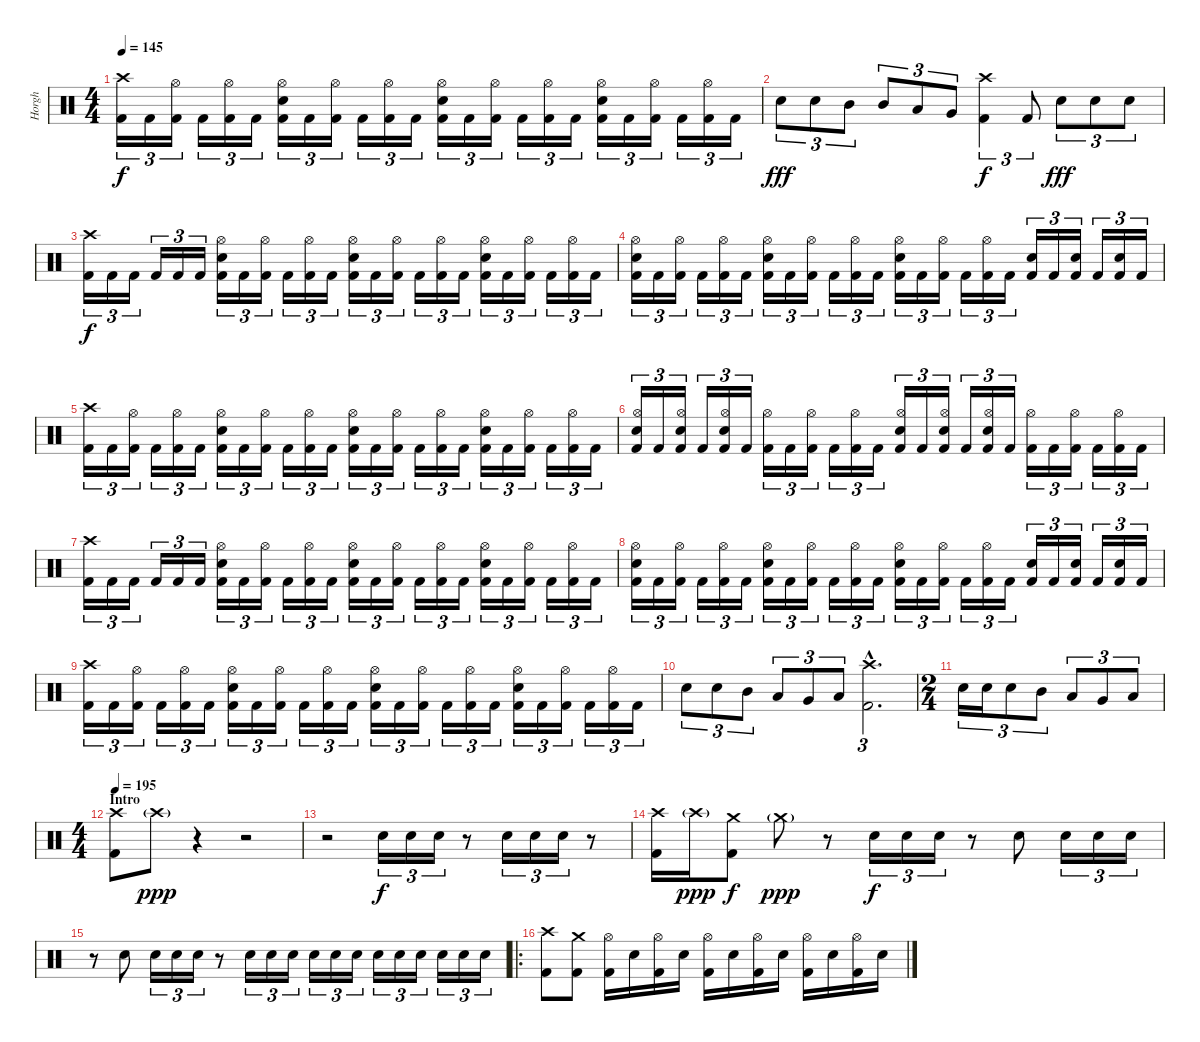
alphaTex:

\track ("Horgh" "Horgh") {instrument percussion}
\staff {score}
\articulation defaults
\ts (4 4)
\tempo 145
\clef neutral
\ks c
("Crash high (hit)" "Kick (hit) 2").16{tu (3 2) dy f} "Kick (hit) 2".16{tu (3 2)} ("Hi-Hat (open)" "Kick (hit) 2").16{tu (3 2)} "Kick (hit) 2".16{tu (3 2)} ("Hi-Hat (open)" "Kick (hit) 2").16{tu (3 2)} "Kick (hit) 2".16{tu (3 2)} ("Hi-Hat (open)" "Electric Snare (hit)" "Kick (hit) 2").16{tu (3 2)} "Kick (hit) 2".16{tu (3 2)} ("Hi-Hat (open)" "Kick (hit) 2").16{tu (3 2)} "Kick (hit) 2".16{tu (3 2)} ("Hi-Hat (open)" "Kick (hit) 2").16{tu (3 2)} "Kick (hit) 2".16{tu (3 2)} ("Hi-Hat (open)" "Electric Snare (hit)" "Kick (hit) 2").16{tu (3 2)} "Kick (hit) 2".16{tu (3 2)} ("Hi-Hat (open)" "Kick (hit) 2").16{tu (3 2)} "Kick (hit) 2".16{tu (3 2)} ("Hi-Hat (open)" "Kick (hit) 2").16{tu (3 2)} "Kick (hit) 2".16{tu (3 2)} ("Hi-Hat (open)" "Electric Snare (hit)" "Kick (hit) 2").16{tu (3 2)} "Kick (hit) 2".16{tu (3 2)} ("Hi-Hat (open)" "Kick (hit) 2").16{tu (3 2)} "Kick (hit) 2".16{tu (3 2)} ("Hi-Hat (open)" "Kick (hit) 2").16{tu (3 2)} "Kick (hit) 2".16{tu (3 2)} |
"Electric Snare (hit)".8{tu (3 2) dy fff} "Electric Snare (hit)".8{tu (3 2)} "Mid Tom (hit)".8{tu (3 2)} "Mid Tom (hit)".8{tu (3 2)} "Low Tom (hit)".8{tu (3 2)} "Very Low Tom (hit)".8{tu (3 2)} ("Crash high (hit)" "Kick (hit) 2").4{tu (3 2) dy f} "Kick (hit) 2".8{tu (3 2)} "Electric Snare (hit)".8{tu (3 2) dy fff} "Electric Snare (hit)".8{tu (3 2)} "Electric Snare (hit)".8{tu (3 2)} |
("Crash high (hit)" "Kick (hit) 2").16{tu (3 2) dy f} "Kick (hit) 2".16{tu (3 2)} "Kick (hit) 2".16{tu (3 2)} "Kick (hit) 2".16{tu (3 2)} "Kick (hit) 2".16{tu (3 2)} "Kick (hit) 2".16{tu (3 2)} ("Hi-Hat (open)" "Electric Snare (hit)" "Kick (hit) 2").16{tu (3 2)} "Kick (hit) 2".16{tu (3 2)} ("Hi-Hat (open)" "Kick (hit) 2").16{tu (3 2)} "Kick (hit) 2".16{tu (3 2)} ("Hi-Hat (open)" "Kick (hit) 2").16{tu (3 2)} "Kick (hit) 2".16{tu (3 2)} ("Hi-Hat (open)" "Electric Snare (hit)" "Kick (hit) 2").16{tu (3 2)} "Kick (hit) 2".16{tu (3 2)} ("Hi-Hat (open)" "Kick (hit) 2").16{tu (3 2)} "Kick (hit) 2".16{tu (3 2)} ("Hi-Hat (open)" "Kick (hit) 2").16{tu (3 2)} "Kick (hit) 2".16{tu (3 2)} ("Hi-Hat (open)" "Electric Snare (hit)" "Kick (hit) 2").16{tu (3 2)} "Kick (hit) 2".16{tu (3 2)} ("Hi-Hat (open)" "Kick (hit) 2").16{tu (3 2)} "Kick (hit) 2".16{tu (3 2)} ("Hi-Hat (open)" "Kick (hit) 2").16{tu (3 2)} "Kick (hit) 2".16{tu (3 2)} |
("Hi-Hat (open)" "Electric Snare (hit)" "Kick (hit) 2").16{tu (3 2)} "Kick (hit) 2".16{tu (3 2)} ("Hi-Hat (open)" "Kick (hit) 2").16{tu (3 2)} "Kick (hit) 2".16{tu (3 2)} ("Hi-Hat (open)" "Kick (hit) 2").16{tu (3 2)} "Kick (hit) 2".16{tu (3 2)} ("Hi-Hat (open)" "Electric Snare (hit)" "Kick (hit) 2").16{tu (3 2)} "Kick (hit) 2".16{tu (3 2)} ("Hi-Hat (open)" "Kick (hit) 2").16{tu (3 2)} "Kick (hit) 2".16{tu (3 2)} ("Hi-Hat (open)" "Kick (hit) 2").16{tu (3 2)} "Kick (hit) 2".16{tu (3 2)} ("Hi-Hat (open)" "Electric Snare (hit)" "Kick (hit) 2").16{tu (3 2)} "Kick (hit) 2".16{tu (3 2)} ("Hi-Hat (open)" "Kick (hit) 2").16{tu (3 2)} "Kick (hit) 2".16{tu (3 2)} ("Hi-Hat (open)" "Kick (hit) 2").16{tu (3 2)} "Kick (hit) 2".16{tu (3 2)} ("Electric Snare (hit)" "Kick (hit) 2").16{tu (3 2)} "Kick (hit) 2".16{tu (3 2)} ("Electric Snare (hit)" "Kick (hit) 2").16{tu (3 2)} "Kick (hit) 2".16{tu (3 2)} ("Electric Snare (hit)" "Kick (hit) 2").16{tu (3 2)} "Kick (hit) 2".16{tu (3 2)} |
("Crash high (hit)" "Kick (hit) 2").16{tu (3 2)} "Kick (hit) 2".16{tu (3 2)} ("Hi-Hat (open)" "Kick (hit) 2").16{tu (3 2)} "Kick (hit) 2".16{tu (3 2)} ("Hi-Hat (open)" "Kick (hit) 2").16{tu (3 2)} "Kick (hit) 2".16{tu (3 2)} ("Hi-Hat (open)" "Electric Snare (hit)" "Kick (hit) 2").16{tu (3 2)} "Kick (hit) 2".16{tu (3 2)} ("Hi-Hat (open)" "Kick (hit) 2").16{tu (3 2)} "Kick (hit) 2".16{tu (3 2)} ("Hi-Hat (open)" "Kick (hit) 2").16{tu (3 2)} "Kick (hit) 2".16{tu (3 2)} ("Hi-Hat (open)" "Electric Snare (hit)" "Kick (hit) 2").16{tu (3 2)} "Kick (hit) 2".16{tu (3 2)} ("Hi-Hat (open)" "Kick (hit) 2").16{tu (3 2)} "Kick (hit) 2".16{tu (3 2)} ("Hi-Hat (open)" "Kick (hit) 2").16{tu (3 2)} "Kick (hit) 2".16{tu (3 2)} ("Hi-Hat (open)" "Electric Snare (hit)" "Kick (hit) 2").16{tu (3 2)} "Kick (hit) 2".16{tu (3 2)} ("Hi-Hat (open)" "Kick (hit) 2").16{tu (3 2)} "Kick (hit) 2".16{tu (3 2)} ("Hi-Hat (open)" "Kick (hit) 2").16{tu (3 2)} "Kick (hit) 2".16{tu (3 2)} |
("Hi-Hat (open)" "Electric Snare (hit)" "Kick (hit) 2").16{tu (3 2)} "Kick (hit) 2".16{tu (3 2)} ("Hi-Hat (open)" "Electric Snare (hit)" "Kick (hit) 2").16{tu (3 2)} "Kick (hit) 2".16{tu (3 2)} ("Hi-Hat (open)" "Electric Snare (hit)" "Kick (hit) 2").16{tu (3 2)} "Kick (hit) 2".16{tu (3 2)} ("Hi-Hat (open)" "Kick (hit) 2").16{tu (3 2)} "Kick (hit) 2".16{tu (3 2)} ("Hi-Hat (open)" "Kick (hit) 2").16{tu (3 2)} "Kick (hit) 2".16{tu (3 2)} ("Hi-Hat (open)" "Kick (hit) 2").16{tu (3 2)} "Kick (hit) 2".16{tu (3 2)} ("Hi-Hat (open)" "Electric Snare (hit)" "Kick (hit) 2").16{tu (3 2)} "Kick (hit) 2".16{tu (3 2)} ("Hi-Hat (open)" "Electric Snare (hit)" "Kick (hit) 2").16{tu (3 2)} "Kick (hit) 2".16{tu (3 2)} ("Hi-Hat (open)" "Electric Snare (hit)" "Kick (hit) 2").16{tu (3 2)} "Kick (hit) 2".16{tu (3 2)} ("Hi-Hat (open)" "Kick (hit) 2").16{tu (3 2)} "Kick (hit) 2".16{tu (3 2)} ("Hi-Hat (open)" "Kick (hit) 2").16{tu (3 2)} "Kick (hit) 2".16{tu (3 2)} ("Hi-Hat (open)" "Kick (hit) 2").16{tu (3 2)} "Kick (hit) 2".16{tu (3 2)} |
("Crash high (hit)" "Kick (hit) 2").16{tu (3 2)} "Kick (hit) 2".16{tu (3 2)} "Kick (hit) 2".16{tu (3 2)} "Kick (hit) 2".16{tu (3 2)} "Kick (hit) 2".16{tu (3 2)} "Kick (hit) 2".16{tu (3 2)} ("Hi-Hat (open)" "Electric Snare (hit)" "Kick (hit) 2").16{tu (3 2)} "Kick (hit) 2".16{tu (3 2)} ("Hi-Hat (open)" "Kick (hit) 2").16{tu (3 2)} "Kick (hit) 2".16{tu (3 2)} ("Hi-Hat (open)" "Kick (hit) 2").16{tu (3 2)} "Kick (hit) 2".16{tu (3 2)} ("Hi-Hat (open)" "Electric Snare (hit)" "Kick (hit) 2").16{tu (3 2)} "Kick (hit) 2".16{tu (3 2)} ("Hi-Hat (open)" "Kick (hit) 2").16{tu (3 2)} "Kick (hit) 2".16{tu (3 2)} ("Hi-Hat (open)" "Kick (hit) 2").16{tu (3 2)} "Kick (hit) 2".16{tu (3 2)} ("Hi-Hat (open)" "Electric Snare (hit)" "Kick (hit) 2").16{tu (3 2)} "Kick (hit) 2".16{tu (3 2)} ("Hi-Hat (open)" "Kick (hit) 2").16{tu (3 2)} "Kick (hit) 2".16{tu (3 2)} ("Hi-Hat (open)" "Kick (hit) 2").16{tu (3 2)} "Kick (hit) 2".16{tu (3 2)} |
("Hi-Hat (open)" "Electric Snare (hit)" "Kick (hit) 2").16{tu (3 2)} "Kick (hit) 2".16{tu (3 2)} ("Hi-Hat (open)" "Kick (hit) 2").16{tu (3 2)} "Kick (hit) 2".16{tu (3 2)} ("Hi-Hat (open)" "Kick (hit) 2").16{tu (3 2)} "Kick (hit) 2".16{tu (3 2)} ("Hi-Hat (open)" "Electric Snare (hit)" "Kick (hit) 2").16{tu (3 2)} "Kick (hit) 2".16{tu (3 2)} ("Hi-Hat (open)" "Kick (hit) 2").16{tu (3 2)} "Kick (hit) 2".16{tu (3 2)} ("Hi-Hat (open)" "Kick (hit) 2").16{tu (3 2)} "Kick (hit) 2".16{tu (3 2)} ("Hi-Hat (open)" "Electric Snare (hit)" "Kick (hit) 2").16{tu (3 2)} "Kick (hit) 2".16{tu (3 2)} ("Hi-Hat (open)" "Kick (hit) 2").16{tu (3 2)} "Kick (hit) 2".16{tu (3 2)} ("Hi-Hat (open)" "Kick (hit) 2").16{tu (3 2)} "Kick (hit) 2".16{tu (3 2)} ("Electric Snare (hit)" "Kick (hit) 2").16{tu (3 2)} "Kick (hit) 2".16{tu (3 2)} ("Electric Snare (hit)" "Kick (hit) 2").16{tu (3 2)} "Kick (hit) 2".16{tu (3 2)} ("Electric Snare (hit)" "Kick (hit) 2").16{tu (3 2)} "Kick (hit) 2".16{tu (3 2)} |
("Crash high (hit)" "Kick (hit) 2").16{tu (3 2)} "Kick (hit) 2".16{tu (3 2)} ("Hi-Hat (open)" "Kick (hit) 2").16{tu (3 2)} "Kick (hit) 2".16{tu (3 2)} ("Hi-Hat (open)" "Kick (hit) 2").16{tu (3 2)} "Kick (hit) 2".16{tu (3 2)} ("Hi-Hat (open)" "Electric Snare (hit)" "Kick (hit) 2").16{tu (3 2)} "Kick (hit) 2".16{tu (3 2)} ("Hi-Hat (open)" "Kick (hit) 2").16{tu (3 2)} "Kick (hit) 2".16{tu (3 2)} ("Hi-Hat (open)" "Kick (hit) 2").16{tu (3 2)} "Kick (hit) 2".16{tu (3 2)} ("Hi-Hat (open)" "Electric Snare (hit)" "Kick (hit) 2").16{tu (3 2)} "Kick (hit) 2".16{tu (3 2)} ("Hi-Hat (open)" "Kick (hit) 2").16{tu (3 2)} "Kick (hit) 2".16{tu (3 2)} ("Hi-Hat (open)" "Kick (hit) 2").16{tu (3 2)} "Kick (hit) 2".16{tu (3 2)} ("Hi-Hat (open)" "Electric Snare (hit)" "Kick (hit) 2").16{tu (3 2)} "Kick (hit) 2".16{tu (3 2)} ("Hi-Hat (open)" "Kick (hit) 2").16{tu (3 2)} "Kick (hit) 2".16{tu (3 2)} ("Hi-Hat (open)" "Kick (hit) 2").16{tu (3 2)} "Kick (hit) 2".16{tu (3 2)} |
"Electric Snare (hit)".8{tu (3 2)} "Electric Snare (hit)".8{tu (3 2)} "Mid Tom (hit)".8{tu (3 2)} "Low Tom (hit)".8{tu (3 2)} "Very Low Tom (hit)".8{tu (3 2)} "Low Floor Tom (hit)".8{tu (3 2)} ("Crash high (hit)"{hac} "Kick (hit) 2"{hac}).2{d tu (3 2)} |
\ts (2 4)
"Electric Snare (hit)".16{tu (3 2)} "Electric Snare (hit)".16{tu (3 2)} "Electric Snare (hit)".8{tu (3 2)} "Mid Tom (hit)".8{tu (3 2)} "Low Tom (hit)".8{tu (3 2)} "Very Low Tom (hit)".8{tu (3 2)} "Low Floor Tom (hit)".8{tu (3 2)} |
\ts (4 4)
\section ("" "Intro")
\tempo 195
("Crash high (hit)" "Kick (hit) 2").8 "Crash high (hit)"{g}.8{dy ppp} r.4{volume 0} r.2 |
r.2 "Electric Snare (hit)".16{tu (3 2) dy f volume 15} "Electric Snare (hit)".16{tu (3 2)} "Electric Snare (hit)".16{tu (3 2)} r.8 "Electric Snare (hit)".16{tu (3 2)} "Electric Snare (hit)".16{tu (3 2)} "Electric Snare (hit)".16{tu (3 2)} r.8 |
("Crash high (hit)" "Kick (hit) 2").16{volume 15} "Crash high (hit)"{g}.16{dy ppp} ("Crash medium (hit)" "Kick (hit) 2").8{dy f} "Crash medium (hit)"{g}.8{dy ppp} r.8{volume 0} "Electric Snare (hit)".16{tu (3 2) dy f volume 15} "Electric Snare (hit)".16{tu (3 2)} "Electric Snare (hit)".16{tu (3 2)} r.8 "Electric Snare (hit)".8 "Electric Snare (hit)".16{tu (3 2)} "Electric Snare (hit)".16{tu (3 2)} "Electric Snare (hit)".16{tu (3 2)} |
r.8 "Electric Snare (hit)".8 "Electric Snare (hit)".16{tu (3 2)} "Electric Snare (hit)".16{tu (3 2)} "Electric Snare (hit)".16{tu (3 2)} r.8 "Electric Snare (hit)".16{tu (3 2)} "Electric Snare (hit)".16{tu (3 2)} "Electric Snare (hit)".16{tu (3 2)} "Electric Snare (hit)".16{tu (3 2)} "Electric Snare (hit)".16{tu (3 2)} "Electric Snare (hit)".16{tu (3 2)} "Electric Snare (hit)".16{tu (3 2)} "Electric Snare (hit)".16{tu (3 2)} "Electric Snare (hit)".16{tu (3 2)} "Electric Snare (hit)".16{tu (3 2)} "Electric Snare (hit)".16{tu (3 2)} "Electric Snare (hit)".16{tu (3 2)} |
\ro
("Crash high (hit)" "Kick (hit) 2").8 ("Crash medium (hit)" "Kick (hit) 2").8 ("Hi-Hat (open)" "Kick (hit) 2").16 "Electric Snare (hit)".16 ("Hi-Hat (open)" "Kick (hit) 2").16 "Electric Snare (hit)".16 ("Hi-Hat (open)" "Kick (hit) 2").16 "Electric Snare (hit)".16 ("Hi-Hat (open)" "Kick (hit) 2").16 "Electric Snare (hit)".16 ("Hi-Hat (open)" "Kick (hit) 2").16 "Electric Snare (hit)".16 ("Hi-Hat (open)" "Kick (hit) 2").16 "Electric Snare (hit)".16
